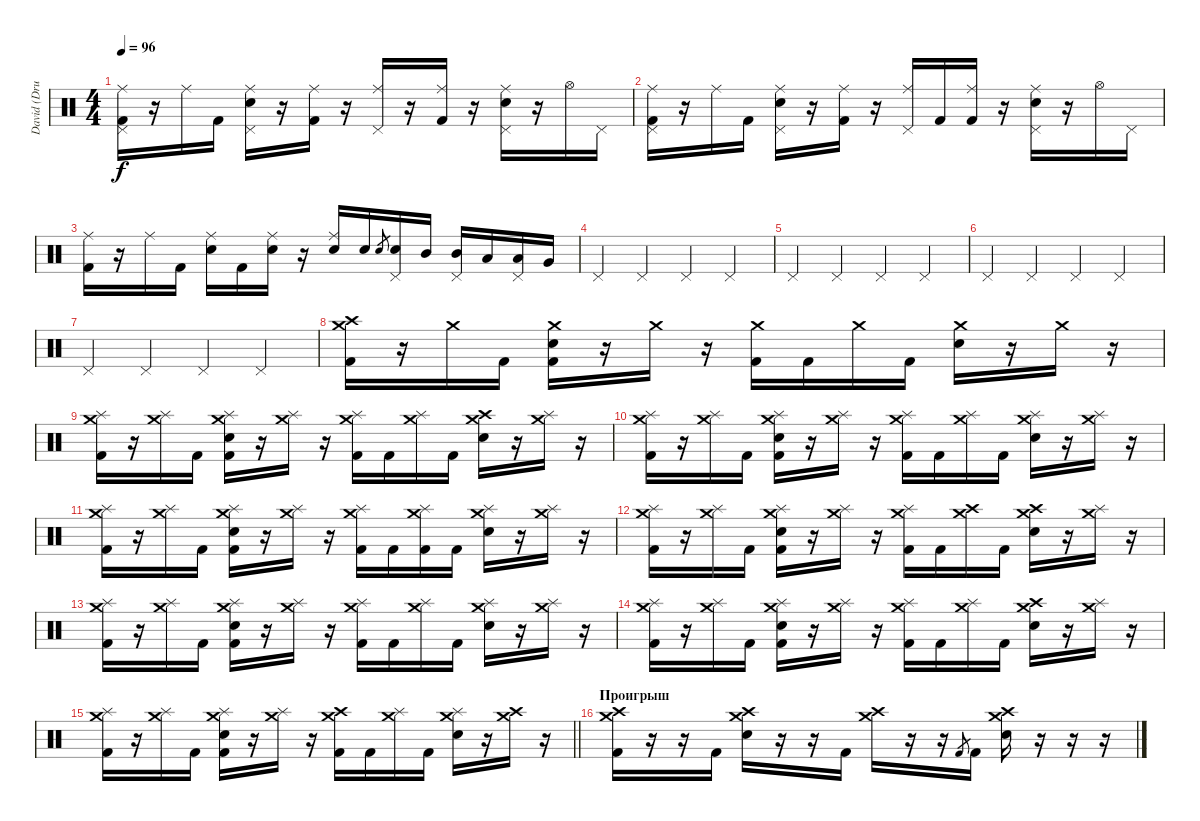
\track ("David (Drums)" "David (Dru") {instrument percussion}
\staff {score}
\articulation defaults
\ts (4 4)
\tempo 96
\clef neutral
\ks c
("Ride (middle)" "Pedal Hi-Hat (hit)" "Kick (hit) 2").16{dy f} r.16 "Ride (middle)".16 "Kick (hit) 2".16 ("Ride (middle)" "Pedal Hi-Hat (hit)" "Electric Snare (hit)").16 r.16 ("Ride (middle)" "Kick (hit) 2").16 r.16 ("Ride (middle)" "Pedal Hi-Hat (hit)").16 r.16 ("Ride (middle)" "Kick (hit) 2").16 r.16 ("Ride (middle)" "Pedal Hi-Hat (hit)" "Electric Snare (hit)").16 r.16 "Hi-Hat (open)".16 "Pedal Hi-Hat (hit)".16 |
("Ride (middle)" "Pedal Hi-Hat (hit)" "Kick (hit) 2").16 r.16 "Ride (middle)".16 "Kick (hit) 2".16 ("Ride (middle)" "Pedal Hi-Hat (hit)" "Electric Snare (hit)").16 r.16 ("Ride (middle)" "Kick (hit) 2").16 r.16 ("Ride (middle)" "Pedal Hi-Hat (hit)").16 "Kick (hit) 2".16 ("Ride (middle)" "Kick (hit) 2").16 r.16 ("Ride (middle)" "Pedal Hi-Hat (hit)" "Electric Snare (hit)").16 r.16 "Hi-Hat (open)".16 "Pedal Hi-Hat (hit)".16 |
("Ride (middle)" "Kick (hit) 2").16 r.16 "Ride (middle)".16 "Kick (hit) 2".16 ("Ride (middle)" "Electric Snare (hit)").16 "Kick (hit) 2".16 ("Ride (middle)" "Electric Snare (hit)").16 r.16 ("Ride (middle)" "Electric Snare (hit)").16 "Electric Snare (hit)".16 "Electric Snare (hit)".8{gr} ("Pedal Hi-Hat (hit)" "Electric Snare (hit)").16 "Mid Tom (hit)".16 ("Pedal Hi-Hat (hit)" "Mid Tom (hit)").16 "Low Tom (hit)".16 ("Pedal Hi-Hat (hit)" "Low Tom (hit)").16 "Very Low Tom (hit)".16 |
"Pedal Hi-Hat (hit)".4 "Pedal Hi-Hat (hit)".4 "Pedal Hi-Hat (hit)".4 "Pedal Hi-Hat (hit)".4 |
"Pedal Hi-Hat (hit)".4 "Pedal Hi-Hat (hit)".4 "Pedal Hi-Hat (hit)".4 "Pedal Hi-Hat (hit)".4 |
"Pedal Hi-Hat (hit)".4 "Pedal Hi-Hat (hit)".4 "Pedal Hi-Hat (hit)".4 "Pedal Hi-Hat (hit)".4 |
"Pedal Hi-Hat (hit)".4 "Pedal Hi-Hat (hit)".4 "Pedal Hi-Hat (hit)".4 "Pedal Hi-Hat (hit)".4 |
("Crash high (hit)" "Crash medium (hit)" "Kick (hit) 2").16 r.16 "Crash medium (hit)".16 "Kick (hit) 2".16 ("Crash medium (hit)" "Electric Snare (hit)" "Kick (hit) 2").16 r.16 "Crash medium (hit)".16 r.16 ("Crash medium (hit)" "Kick (hit) 2").16 "Kick (hit) 2".16 "Crash medium (hit)".16 "Kick (hit) 2".16 ("Crash medium (hit)" "Electric Snare (hit)").16 r.16 "Crash medium (hit)".16 r.16 |
("Splash (hit)" "Crash medium (hit)" "Kick (hit) 2").16 r.16 ("Splash (hit)" "Crash medium (hit)").16 "Kick (hit) 2".16 ("Splash (hit)" "Crash medium (hit)" "Electric Snare (hit)" "Kick (hit) 2").16 r.16 ("Splash (hit)" "Crash medium (hit)").16 r.16 ("Splash (hit)" "Crash medium (hit)" "Kick (hit) 2").16 "Kick (hit) 2".16 ("Splash (hit)" "Crash medium (hit)").16 "Kick (hit) 2".16 ("Crash high (hit)" "Crash medium (hit)" "Electric Snare (hit)").16 r.16 ("Splash (hit)" "Crash medium (hit)").16 r.16 |
("Splash (hit)" "Crash medium (hit)" "Kick (hit) 2").16 r.16 ("Splash (hit)" "Crash medium (hit)").16 "Kick (hit) 2".16 ("Splash (hit)" "Crash medium (hit)" "Electric Snare (hit)" "Kick (hit) 2").16 r.16 ("Splash (hit)" "Crash medium (hit)").16 r.16 ("Splash (hit)" "Crash medium (hit)" "Kick (hit) 2").16 "Kick (hit) 2".16 ("Splash (hit)" "Crash medium (hit)").16 "Kick (hit) 2".16 ("Splash (hit)" "Crash medium (hit)" "Electric Snare (hit)").16 r.16 ("Splash (hit)" "Crash medium (hit)").16 r.16 |
("Splash (hit)" "Crash medium (hit)" "Kick (hit) 2").16 r.16 ("Splash (hit)" "Crash medium (hit)").16 "Kick (hit) 2".16 ("Splash (hit)" "Crash medium (hit)" "Electric Snare (hit)" "Kick (hit) 2").16 r.16 ("Splash (hit)" "Crash medium (hit)").16 r.16 ("Splash (hit)" "Crash medium (hit)" "Kick (hit) 2").16 "Kick (hit) 2".16 ("Splash (hit)" "Crash medium (hit)" "Kick (hit) 2").16 "Kick (hit) 2".16 ("Splash (hit)" "Crash medium (hit)" "Electric Snare (hit)").16 r.16 ("Splash (hit)" "Crash medium (hit)").16 r.16 |
("Splash (hit)" "Crash medium (hit)" "Kick (hit) 2").16 r.16 ("Splash (hit)" "Crash medium (hit)").16 "Kick (hit) 2".16 ("Splash (hit)" "Crash medium (hit)" "Electric Snare (hit)" "Kick (hit) 2").16 r.16 ("Splash (hit)" "Crash medium (hit)").16 r.16 ("Splash (hit)" "Crash medium (hit)" "Kick (hit) 2").16 "Kick (hit) 2".16 ("Crash high (hit)" "Crash medium (hit)").16 "Kick (hit) 2".16 ("Crash high (hit)" "Crash medium (hit)" "Electric Snare (hit)").16 r.16 ("Splash (hit)" "Crash medium (hit)").16 r.16 |
("Splash (hit)" "Crash medium (hit)" "Kick (hit) 2").16 r.16 ("Splash (hit)" "Crash medium (hit)").16 "Kick (hit) 2".16 ("Splash (hit)" "Crash medium (hit)" "Electric Snare (hit)" "Kick (hit) 2").16 r.16 ("Splash (hit)" "Crash medium (hit)").16 r.16 ("Splash (hit)" "Crash medium (hit)" "Kick (hit) 2").16 "Kick (hit) 2".16 ("Splash (hit)" "Crash medium (hit)").16 "Kick (hit) 2".16 ("Splash (hit)" "Crash medium (hit)" "Electric Snare (hit)").16 r.16 ("Splash (hit)" "Crash medium (hit)").16 r.16 |
("Splash (hit)" "Crash medium (hit)" "Kick (hit) 2").16 r.16 ("Splash (hit)" "Crash medium (hit)").16 "Kick (hit) 2".16 ("Splash (hit)" "Crash medium (hit)" "Electric Snare (hit)" "Kick (hit) 2").16 r.16 ("Splash (hit)" "Crash medium (hit)").16 r.16 ("Splash (hit)" "Crash medium (hit)" "Kick (hit) 2").16 "Kick (hit) 2".16 ("Splash (hit)" "Crash medium (hit)").16 "Kick (hit) 2".16 ("Crash high (hit)" "Crash medium (hit)" "Electric Snare (hit)").16 r.16 ("Splash (hit)" "Crash medium (hit)").16 r.16 |
\barLineRight lightlight
("Splash (hit)" "Crash medium (hit)" "Kick (hit) 2").16 r.16 ("Splash (hit)" "Crash medium (hit)").16 "Kick (hit) 2".16 ("Splash (hit)" "Crash medium (hit)" "Electric Snare (hit)" "Kick (hit) 2").16 r.16 ("Splash (hit)" "Crash medium (hit)").16 r.16 ("Crash high (hit)" "Crash medium (hit)" "Kick (hit) 2").16 "Kick (hit) 2".16 ("Splash (hit)" "Crash medium (hit)").16 "Kick (hit) 2".16 ("Splash (hit)" "Crash medium (hit)" "Electric Snare (hit)").16 r.16 ("Crash high (hit)" "Crash medium (hit)").16 r.16 |
\section ("" "Проигрыш")
("Crash high (hit)" "Crash medium (hit)" "Kick (hit) 2").16 r.16 r.16 "Kick (hit) 2".16 ("Crash high (hit)" "Crash medium (hit)" "Electric Snare (hit)").16 r.16 r.16 "Kick (hit) 2".16 ("Crash high (hit)" "Crash medium (hit)").16 r.16 r.16 "Kick (hit) 2".8{gr} "Kick (hit) 2".16 ("Crash high (hit)" "Crash medium (hit)" "Electric Snare (hit)").16 r.16 r.16 r.16
